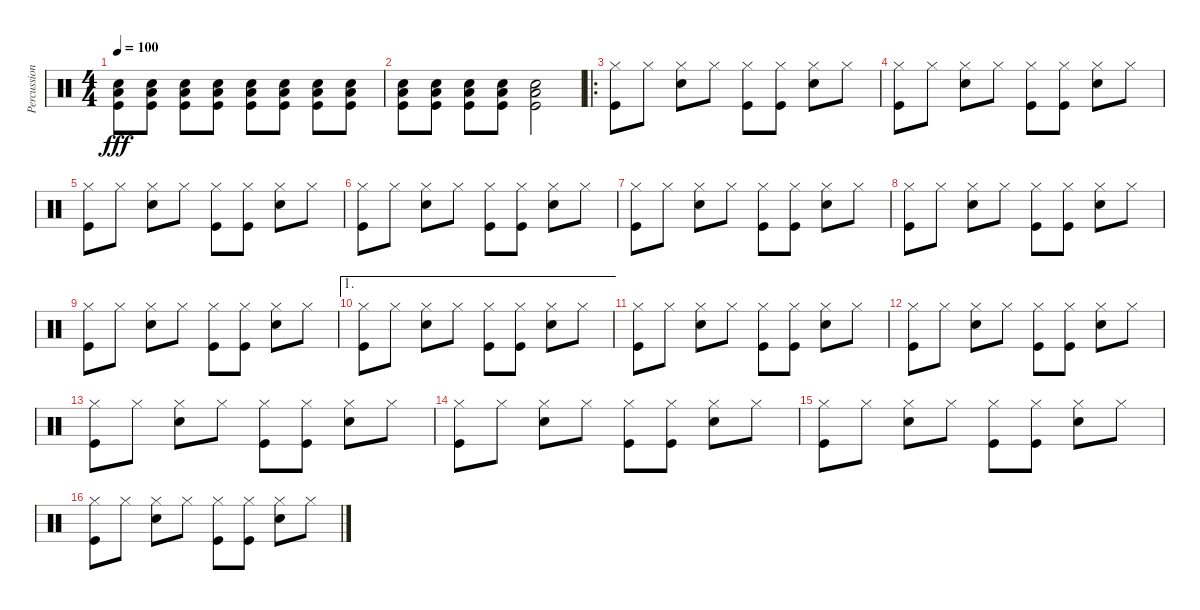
\track ("Percussion" "Percussion") {instrument percussion}
\staff {score}
\articulation defaults
\ts (4 4)
\tempo 100
\clef neutral
\ks c
("Low Floor Tom (hit)" "Kick (hit)" "Snare (hit) 2").8{dy fff} ("Low Floor Tom (hit)" "Kick (hit)" "Snare (hit) 2").8 ("Low Floor Tom (hit)" "Kick (hit)" "Snare (hit) 2").8 ("Low Floor Tom (hit)" "Kick (hit)" "Snare (hit) 2").8 ("Low Floor Tom (hit)" "Kick (hit)" "Snare (hit) 2").8 ("Low Floor Tom (hit)" "Kick (hit)" "Snare (hit) 2").8 ("Low Floor Tom (hit)" "Kick (hit)" "Snare (hit) 2").8 ("Low Floor Tom (hit)" "Kick (hit)" "Snare (hit) 2").8 |
("Low Floor Tom (hit)" "Kick (hit)" "Snare (hit) 2").8 ("Low Floor Tom (hit)" "Kick (hit)" "Snare (hit) 2").8 ("Low Floor Tom (hit)" "Kick (hit)" "Snare (hit) 2").8 ("Low Floor Tom (hit)" "Kick (hit)" "Snare (hit) 2").8 ("Low Floor Tom (hit)" "Kick (hit)" "Snare (hit) 2").2 |
\ro
("Hi-Hat (closed)" "Kick (hit)").8 "Hi-Hat (closed)".8 ("Hi-Hat (closed)" "Snare (hit) 2").8 "Hi-Hat (closed)".8 ("Hi-Hat (closed)" "Kick (hit)").8 ("Hi-Hat (closed)" "Kick (hit)").8 ("Hi-Hat (closed)" "Snare (hit) 2").8 "Hi-Hat (closed)".8 |
("Hi-Hat (closed)" "Kick (hit)").8 "Hi-Hat (closed)".8 ("Hi-Hat (closed)" "Snare (hit) 2").8 "Hi-Hat (closed)".8 ("Hi-Hat (closed)" "Kick (hit)").8 ("Hi-Hat (closed)" "Kick (hit)").8 ("Hi-Hat (closed)" "Snare (hit) 2").8 "Hi-Hat (closed)".8 |
("Hi-Hat (closed)" "Kick (hit)").8 "Hi-Hat (closed)".8 ("Hi-Hat (closed)" "Snare (hit) 2").8 "Hi-Hat (closed)".8 ("Hi-Hat (closed)" "Kick (hit)").8 ("Hi-Hat (closed)" "Kick (hit)").8 ("Hi-Hat (closed)" "Snare (hit) 2").8 "Hi-Hat (closed)".8 |
("Hi-Hat (closed)" "Kick (hit)").8 "Hi-Hat (closed)".8 ("Hi-Hat (closed)" "Snare (hit) 2").8 "Hi-Hat (closed)".8 ("Hi-Hat (closed)" "Kick (hit)").8 ("Hi-Hat (closed)" "Kick (hit)").8 ("Hi-Hat (closed)" "Snare (hit) 2").8 "Hi-Hat (closed)".8 |
("Hi-Hat (closed)" "Kick (hit)").8 "Hi-Hat (closed)".8 ("Hi-Hat (closed)" "Snare (hit) 2").8 "Hi-Hat (closed)".8 ("Hi-Hat (closed)" "Kick (hit)").8 ("Hi-Hat (closed)" "Kick (hit)").8 ("Hi-Hat (closed)" "Snare (hit) 2").8 "Hi-Hat (closed)".8 |
("Hi-Hat (closed)" "Kick (hit)").8 "Hi-Hat (closed)".8 ("Hi-Hat (closed)" "Snare (hit) 2").8 "Hi-Hat (closed)".8 ("Hi-Hat (closed)" "Kick (hit)").8 ("Hi-Hat (closed)" "Kick (hit)").8 ("Hi-Hat (closed)" "Snare (hit) 2").8 "Hi-Hat (closed)".8 |
("Hi-Hat (closed)" "Kick (hit)").8 "Hi-Hat (closed)".8 ("Hi-Hat (closed)" "Snare (hit) 2").8 "Hi-Hat (closed)".8 ("Hi-Hat (closed)" "Kick (hit)").8 ("Hi-Hat (closed)" "Kick (hit)").8 ("Hi-Hat (closed)" "Snare (hit) 2").8 "Hi-Hat (closed)".8 |
\ae 1
("Hi-Hat (closed)" "Kick (hit)").8 "Hi-Hat (closed)".8 ("Hi-Hat (closed)" "Snare (hit) 2").8 "Hi-Hat (closed)".8 ("Hi-Hat (closed)" "Kick (hit)").8 ("Hi-Hat (closed)" "Kick (hit)").8 ("Hi-Hat (closed)" "Snare (hit) 2").8 "Hi-Hat (closed)".8 |
("Hi-Hat (closed)" "Kick (hit)").8 "Hi-Hat (closed)".8 ("Hi-Hat (closed)" "Snare (hit) 2").8 "Hi-Hat (closed)".8 ("Hi-Hat (closed)" "Kick (hit)").8 ("Hi-Hat (closed)" "Kick (hit)").8 ("Hi-Hat (closed)" "Snare (hit) 2").8 "Hi-Hat (closed)".8 |
("Hi-Hat (closed)" "Kick (hit)").8 "Hi-Hat (closed)".8 ("Hi-Hat (closed)" "Snare (hit) 2").8 "Hi-Hat (closed)".8 ("Hi-Hat (closed)" "Kick (hit)").8 ("Hi-Hat (closed)" "Kick (hit)").8 ("Hi-Hat (closed)" "Snare (hit) 2").8 "Hi-Hat (closed)".8 |
("Hi-Hat (closed)" "Kick (hit)").8 "Hi-Hat (closed)".8 ("Hi-Hat (closed)" "Snare (hit) 2").8 "Hi-Hat (closed)".8 ("Hi-Hat (closed)" "Kick (hit)").8 ("Hi-Hat (closed)" "Kick (hit)").8 ("Hi-Hat (closed)" "Snare (hit) 2").8 "Hi-Hat (closed)".8 |
("Hi-Hat (closed)" "Kick (hit)").8 "Hi-Hat (closed)".8 ("Hi-Hat (closed)" "Snare (hit) 2").8 "Hi-Hat (closed)".8 ("Hi-Hat (closed)" "Kick (hit)").8 ("Hi-Hat (closed)" "Kick (hit)").8 ("Hi-Hat (closed)" "Snare (hit) 2").8 "Hi-Hat (closed)".8 |
("Hi-Hat (closed)" "Kick (hit)").8 "Hi-Hat (closed)".8 ("Hi-Hat (closed)" "Snare (hit) 2").8 "Hi-Hat (closed)".8 ("Hi-Hat (closed)" "Kick (hit)").8 ("Hi-Hat (closed)" "Kick (hit)").8 ("Hi-Hat (closed)" "Snare (hit) 2").8 "Hi-Hat (closed)".8 |
("Hi-Hat (closed)" "Kick (hit)").8 "Hi-Hat (closed)".8 ("Hi-Hat (closed)" "Snare (hit) 2").8 "Hi-Hat (closed)".8 ("Hi-Hat (closed)" "Kick (hit)").8 ("Hi-Hat (closed)" "Kick (hit)").8 ("Hi-Hat (closed)" "Snare (hit) 2").8 "Hi-Hat (closed)".8
